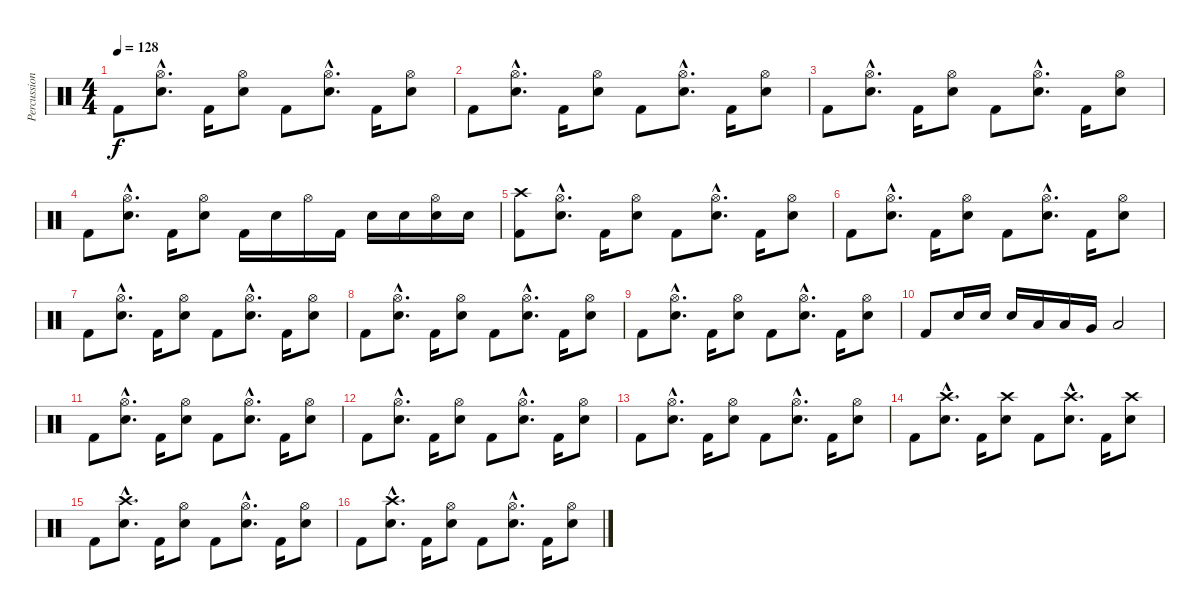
\track ("Percussions" "Percussion") {instrument percussion}
\staff {score}
\articulation defaults
\ts (4 4)
\tempo 128
\clef neutral
\ks c "Kick (hit) 2".8{dy f}
("Hi-Hat (open)"{hac} "Electric Snare (hit)"{hac}).8{d} "Kick (hit) 2".16 ("Hi-Hat (open)" "Electric Snare (hit)").8 "Kick (hit) 2".8 ("Hi-Hat (open)"{hac} "Electric Snare (hit)"{hac}).8{d} "Kick (hit) 2".16 ("Hi-Hat (open)" "Electric Snare (hit)").8 |
"Kick (hit) 2".8 ("Hi-Hat (open)"{hac} "Electric Snare (hit)"{hac}).8{d} "Kick (hit) 2".16 ("Hi-Hat (open)" "Electric Snare (hit)").8 "Kick (hit) 2".8 ("Hi-Hat (open)"{hac} "Electric Snare (hit)"{hac}).8{d} "Kick (hit) 2".16 ("Hi-Hat (open)" "Electric Snare (hit)").8 |
"Kick (hit) 2".8 ("Hi-Hat (open)"{hac} "Electric Snare (hit)"{hac}).8{d} "Kick (hit) 2".16 ("Hi-Hat (open)" "Electric Snare (hit)").8 "Kick (hit) 2".8 ("Hi-Hat (open)"{hac} "Electric Snare (hit)"{hac}).8{d} "Kick (hit) 2".16 ("Hi-Hat (open)" "Electric Snare (hit)").8 |
"Kick (hit) 2".8 ("Hi-Hat (open)"{hac} "Electric Snare (hit)"{hac}).8{d} "Kick (hit) 2".16 ("Hi-Hat (open)" "Electric Snare (hit)").8 "Kick (hit) 2".16 "Electric Snare (hit)".16 "Hi-Hat (open)".16 "Kick (hit) 2".16 "Electric Snare (hit)".16 "Electric Snare (hit)".16 ("Hi-Hat (open)" "Electric Snare (hit)").16 "Electric Snare (hit)".16 |
("Crash high (hit)" "Kick (hit) 2").8 ("Hi-Hat (open)"{hac} "Electric Snare (hit)"{hac}).8{d} "Kick (hit) 2".16 ("Hi-Hat (open)" "Electric Snare (hit)").8 "Kick (hit) 2".8 ("Hi-Hat (open)"{hac} "Electric Snare (hit)"{hac}).8{d} "Kick (hit) 2".16 ("Hi-Hat (open)" "Electric Snare (hit)").8 |
"Kick (hit) 2".8 ("Hi-Hat (open)"{hac} "Electric Snare (hit)"{hac}).8{d} "Kick (hit) 2".16 ("Hi-Hat (open)" "Electric Snare (hit)").8 "Kick (hit) 2".8 ("Hi-Hat (open)"{hac} "Electric Snare (hit)"{hac}).8{d} "Kick (hit) 2".16 ("Hi-Hat (open)" "Electric Snare (hit)").8 |
"Kick (hit) 2".8 ("Hi-Hat (open)"{hac} "Electric Snare (hit)"{hac}).8{d} "Kick (hit) 2".16 ("Hi-Hat (open)" "Electric Snare (hit)").8 "Kick (hit) 2".8 ("Hi-Hat (open)"{hac} "Electric Snare (hit)"{hac}).8{d} "Kick (hit) 2".16 ("Hi-Hat (open)" "Electric Snare (hit)").8 |
"Kick (hit) 2".8 ("Hi-Hat (open)"{hac} "Electric Snare (hit)"{hac}).8{d} "Kick (hit) 2".16 ("Hi-Hat (open)" "Electric Snare (hit)").8 "Kick (hit) 2".8 ("Hi-Hat (open)"{hac} "Electric Snare (hit)"{hac}).8{d} "Kick (hit) 2".16 ("Hi-Hat (open)" "Electric Snare (hit)").8 |
"Kick (hit) 2".8 ("Hi-Hat (open)"{hac} "Electric Snare (hit)"{hac}).8{d} "Kick (hit) 2".16 ("Hi-Hat (open)" "Electric Snare (hit)").8 "Kick (hit) 2".8 ("Hi-Hat (open)"{hac} "Electric Snare (hit)"{hac}).8{d} "Kick (hit) 2".16 ("Hi-Hat (open)" "Electric Snare (hit)").8 |
"Kick (hit) 2".8 "Electric Snare (hit)".16 "Electric Snare (hit)".16 "Electric Snare (hit)".16 "Low Tom (hit)".16 "Low Tom (hit)".16 "Very Low Tom (hit)".16 "Low Floor Tom (hit)".2 |
"Kick (hit) 2".8 ("Hi-Hat (open)"{hac} "Electric Snare (hit)"{hac}).8{d} "Kick (hit) 2".16 ("Hi-Hat (open)" "Electric Snare (hit)").8 "Kick (hit) 2".8 ("Hi-Hat (open)"{hac} "Electric Snare (hit)"{hac}).8{d} "Kick (hit) 2".16 ("Hi-Hat (open)" "Electric Snare (hit)").8 |
"Kick (hit) 2".8 ("Hi-Hat (open)"{hac} "Electric Snare (hit)"{hac}).8{d} "Kick (hit) 2".16 ("Hi-Hat (open)" "Electric Snare (hit)").8 "Kick (hit) 2".8 ("Hi-Hat (open)"{hac} "Electric Snare (hit)"{hac}).8{d} "Kick (hit) 2".16 ("Hi-Hat (open)" "Electric Snare (hit)").8 |
"Kick (hit) 2".8 ("Hi-Hat (open)"{hac} "Electric Snare (hit)"{hac}).8{d} "Kick (hit) 2".16 ("Hi-Hat (open)" "Electric Snare (hit)").8 "Kick (hit) 2".8 ("Hi-Hat (open)"{hac} "Electric Snare (hit)"{hac}).8{d} "Kick (hit) 2".16 ("Hi-Hat (open)" "Electric Snare (hit)").8 |
"Kick (hit) 2".8 ("Crash high (hit)"{hac} "Electric Snare (hit)"{hac}).8{d} "Kick (hit) 2".16 ("Crash high (hit)" "Electric Snare (hit)").8 "Kick (hit) 2".8 ("Crash high (hit)"{hac} "Electric Snare (hit)"{hac}).8{d} "Kick (hit) 2".16 ("Crash high (hit)" "Electric Snare (hit)").8 |
"Kick (hit) 2".8 ("Crash high (hit)"{hac} "Electric Snare (hit)"{hac}).8{d} "Kick (hit) 2".16 ("Hi-Hat (open)" "Electric Snare (hit)").8 "Kick (hit) 2".8 ("Hi-Hat (open)"{hac} "Electric Snare (hit)"{hac}).8{d} "Kick (hit) 2".16 ("Hi-Hat (open)" "Electric Snare (hit)").8 |
"Kick (hit) 2".8 ("Crash high (hit)"{hac} "Electric Snare (hit)"{hac}).8{d} "Kick (hit) 2".16 ("Hi-Hat (open)" "Electric Snare (hit)").8 "Kick (hit) 2".8 ("Hi-Hat (open)"{hac} "Electric Snare (hit)"{hac}).8{d} "Kick (hit) 2".16 ("Hi-Hat (open)" "Electric Snare (hit)").8
